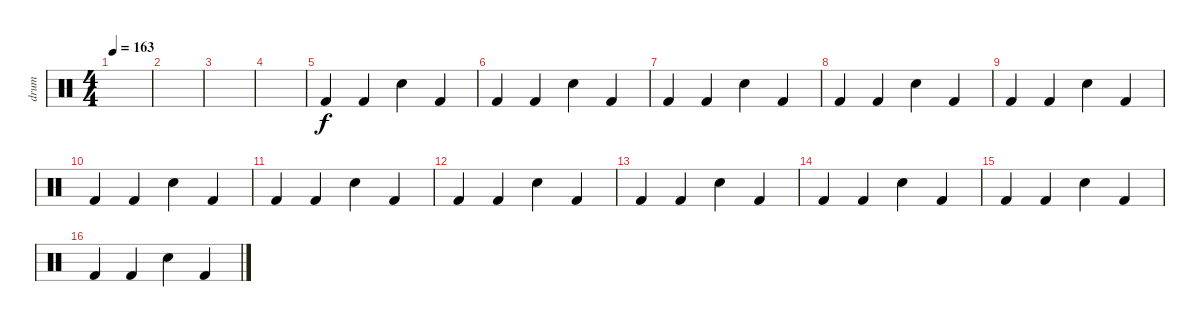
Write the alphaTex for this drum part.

\track ("drum" "drum") {instrument percussion}
\staff {score}
\articulation defaults
\ts (4 4)
\tempo 163
\clef neutral
\ks c
|
|
|
|
"Kick (hit) 2".4 "Kick (hit) 2".4 "Electric Snare (hit)".4 "Kick (hit) 2".4 |
"Kick (hit) 2".4 "Kick (hit) 2".4 "Electric Snare (hit)".4 "Kick (hit) 2".4 |
"Kick (hit) 2".4 "Kick (hit) 2".4 "Electric Snare (hit)".4 "Kick (hit) 2".4 |
"Kick (hit) 2".4 "Kick (hit) 2".4 "Electric Snare (hit)".4 "Kick (hit) 2".4 |
"Kick (hit) 2".4 "Kick (hit) 2".4 "Electric Snare (hit)".4 "Kick (hit) 2".4 |
"Kick (hit) 2".4 "Kick (hit) 2".4 "Electric Snare (hit)".4 "Kick (hit) 2".4 |
"Kick (hit) 2".4 "Kick (hit) 2".4 "Electric Snare (hit)".4 "Kick (hit) 2".4 |
"Kick (hit) 2".4 "Kick (hit) 2".4 "Electric Snare (hit)".4 "Kick (hit) 2".4 |
"Kick (hit) 2".4 "Kick (hit) 2".4 "Electric Snare (hit)".4 "Kick (hit) 2".4 |
"Kick (hit) 2".4 "Kick (hit) 2".4 "Electric Snare (hit)".4 "Kick (hit) 2".4 |
"Kick (hit) 2".4 "Kick (hit) 2".4 "Electric Snare (hit)".4 "Kick (hit) 2".4 |
"Kick (hit) 2".4 "Kick (hit) 2".4 "Electric Snare (hit)".4 "Kick (hit) 2".4
